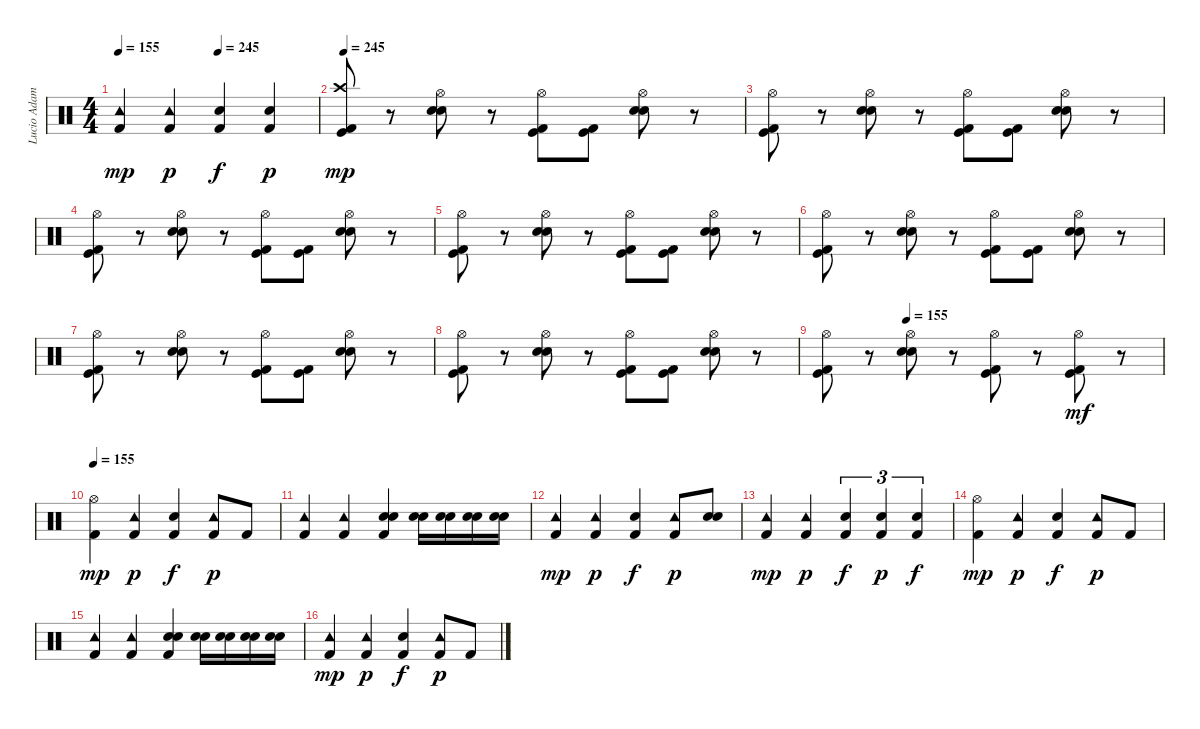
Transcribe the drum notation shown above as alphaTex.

\track ("Lucio Adamo (Bateria)" "Lucio Adam") {instrument percussion}
\staff {score}
\articulation defaults
\ts (4 4)
\tempo 155
\tempo (245 0.5)
\clef neutral
\ks c
("Kick (hit) 2" "Tambourine (hit)").4{dy mp} ("Tambourine (hit)" "Kick (hit) 2").4{dy p} ("Kick (hit) 2" "Electric Snare (hit)").4{dy f} ("Electric Snare (hit)" "Kick (hit) 2").4{dy p} |
\tempo 245
("Crash high (hit)" "Kick (hit)" "Kick (hit) 2").8{dy mp} r.8 ("Hi-Hat (open)" "Snare (hit) 2" "Electric Snare (hit)").8 r.8 ("Hi-Hat (open)" "Kick (hit) 2" "Kick (hit)").8 ("Kick (hit) 2" "Kick (hit)").8 ("Hi-Hat (open)" "Snare (hit) 2" "Electric Snare (hit)").8 r.8 |
("Hi-Hat (open)" "Kick (hit)" "Kick (hit) 2").8 r.8 ("Hi-Hat (open)" "Snare (hit) 2" "Electric Snare (hit)").8 r.8 ("Hi-Hat (open)" "Kick (hit) 2" "Kick (hit)").8 ("Kick (hit) 2" "Kick (hit)").8 ("Hi-Hat (open)" "Snare (hit) 2" "Electric Snare (hit)").8 r.8 |
("Hi-Hat (open)" "Kick (hit)" "Kick (hit) 2").8 r.8 ("Hi-Hat (open)" "Snare (hit) 2" "Electric Snare (hit)").8 r.8 ("Hi-Hat (open)" "Kick (hit) 2" "Kick (hit)").8 ("Kick (hit) 2" "Kick (hit)").8 ("Hi-Hat (open)" "Snare (hit) 2" "Electric Snare (hit)").8 r.8 |
("Hi-Hat (open)" "Kick (hit)" "Kick (hit) 2").8 r.8 ("Hi-Hat (open)" "Snare (hit) 2" "Electric Snare (hit)").8 r.8 ("Hi-Hat (open)" "Kick (hit) 2" "Kick (hit)").8 ("Kick (hit) 2" "Kick (hit)").8 ("Hi-Hat (open)" "Snare (hit) 2" "Electric Snare (hit)").8 r.8 |
("Hi-Hat (open)" "Kick (hit)" "Kick (hit) 2").8 r.8 ("Hi-Hat (open)" "Snare (hit) 2" "Electric Snare (hit)").8 r.8 ("Hi-Hat (open)" "Kick (hit) 2" "Kick (hit)").8 ("Kick (hit) 2" "Kick (hit)").8 ("Hi-Hat (open)" "Snare (hit) 2" "Electric Snare (hit)").8 r.8 |
("Hi-Hat (open)" "Kick (hit)" "Kick (hit) 2").8 r.8 ("Hi-Hat (open)" "Snare (hit) 2" "Electric Snare (hit)").8 r.8 ("Hi-Hat (open)" "Kick (hit) 2" "Kick (hit)").8 ("Kick (hit) 2" "Kick (hit)").8 ("Hi-Hat (open)" "Snare (hit) 2" "Electric Snare (hit)").8 r.8 |
("Hi-Hat (open)" "Kick (hit)" "Kick (hit) 2").8 r.8 ("Hi-Hat (open)" "Snare (hit) 2" "Electric Snare (hit)").8 r.8 ("Hi-Hat (open)" "Kick (hit) 2" "Kick (hit)").8 ("Kick (hit) 2" "Kick (hit)").8 ("Hi-Hat (open)" "Snare (hit) 2" "Electric Snare (hit)").8 r.8 |
\tempo (155 0.25)
("Hi-Hat (open)" "Kick (hit)" "Kick (hit) 2").8 r.8 ("Hi-Hat (open)" "Snare (hit) 2" "Electric Snare (hit)").8 r.8 ("Hi-Hat (open)" "Kick (hit)" "Kick (hit) 2").8 r.8 ("Hi-Hat (open)" "Kick (hit)" "Kick (hit) 2").8{dy mf} r.8 |
\tempo 155
("Kick (hit) 2" "Hi-Hat (open)").4{dy mp} ("Tambourine (hit)" "Kick (hit) 2").4{dy p} ("Kick (hit) 2" "Electric Snare (hit)").4{dy f} ("Tambourine (hit)" "Kick (hit) 2").8{dy p} "Kick (hit) 2".8 |
("Kick (hit) 2" "Tambourine (hit)").4 ("Tambourine (hit)" "Kick (hit) 2").4 ("Kick (hit) 2" "Electric Snare (hit)" "Snare (hit) 2").4 ("Electric Snare (hit)" "Snare (hit) 2").16 ("Electric Snare (hit)" "Snare (hit) 2").16 ("Electric Snare (hit)" "Snare (hit) 2").16 ("Electric Snare (hit)" "Snare (hit) 2").16 |
("Kick (hit) 2" "Tambourine (hit)").4{dy mp} ("Tambourine (hit)" "Kick (hit) 2").4{dy p} ("Kick (hit) 2" "Electric Snare (hit)").4{dy f} ("Tambourine (hit)" "Kick (hit) 2").8{dy p} ("Electric Snare (hit)" "Snare (hit) 2").8 |
("Kick (hit) 2" "Tambourine (hit)").4{dy mp} ("Tambourine (hit)" "Kick (hit) 2").4{dy p} ("Kick (hit) 2" "Electric Snare (hit)").4{tu (3 2) dy f} ("Electric Snare (hit)" "Kick (hit) 2").4{tu (3 2) dy p} ("Electric Snare (hit)" "Kick (hit) 2").4{tu (3 2) dy f} |
("Kick (hit) 2" "Hi-Hat (open)").4{dy mp} ("Tambourine (hit)" "Kick (hit) 2").4{dy p} ("Kick (hit) 2" "Electric Snare (hit)").4{dy f} ("Tambourine (hit)" "Kick (hit) 2").8{dy p} "Kick (hit) 2".8 |
("Kick (hit) 2" "Tambourine (hit)").4 ("Tambourine (hit)" "Kick (hit) 2").4 ("Kick (hit) 2" "Electric Snare (hit)" "Snare (hit) 2").4 ("Electric Snare (hit)" "Snare (hit) 2").16 ("Electric Snare (hit)" "Snare (hit) 2").16 ("Electric Snare (hit)" "Snare (hit) 2").16 ("Electric Snare (hit)" "Snare (hit) 2").16 |
("Kick (hit) 2" "Tambourine (hit)").4{dy mp} ("Tambourine (hit)" "Kick (hit) 2").4{dy p} ("Kick (hit) 2" "Electric Snare (hit)").4{dy f} ("Tambourine (hit)" "Kick (hit) 2").8{dy p} "Kick (hit) 2".8
